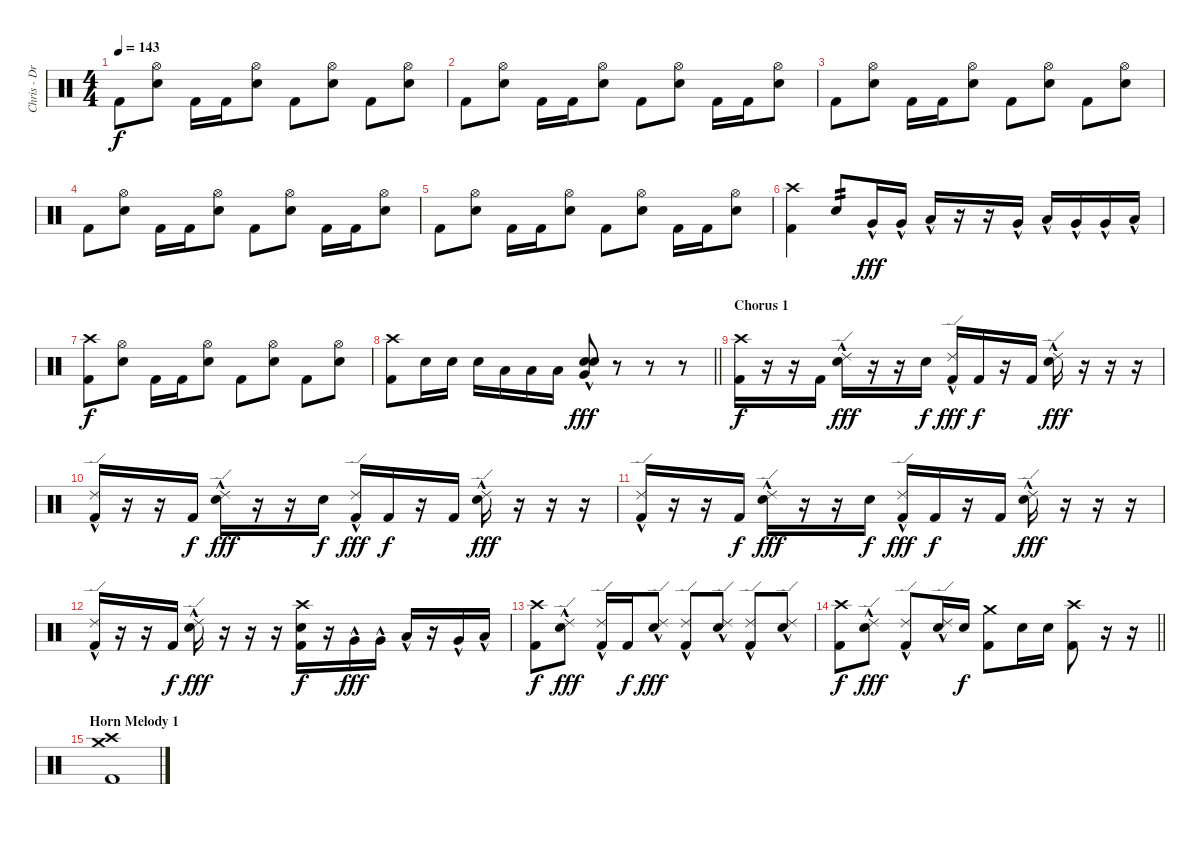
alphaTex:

\track ("Chris - Drums" "Chris - Dr") {instrument percussion}
\staff {score}
\articulation defaults
\ts (4 4)
\tempo 143
\clef neutral
\ks c "Kick (hit) 2".8{dy f}
("Hi-Hat (open)" "Electric Snare (hit)").8 "Kick (hit) 2".16 "Kick (hit) 2".16 ("Hi-Hat (open)" "Electric Snare (hit)").8 "Kick (hit) 2".8 ("Hi-Hat (open)" "Electric Snare (hit)").8 "Kick (hit) 2".8 ("Hi-Hat (open)" "Electric Snare (hit)").8 |
"Kick (hit) 2".8 ("Hi-Hat (open)" "Electric Snare (hit)").8 "Kick (hit) 2".16 "Kick (hit) 2".16 ("Hi-Hat (open)" "Electric Snare (hit)").8 "Kick (hit) 2".8 ("Hi-Hat (open)" "Electric Snare (hit)").8 "Kick (hit) 2".16 "Kick (hit) 2".16 ("Hi-Hat (open)" "Electric Snare (hit)").8 |
"Kick (hit) 2".8 ("Hi-Hat (open)" "Electric Snare (hit)").8 "Kick (hit) 2".16 "Kick (hit) 2".16 ("Hi-Hat (open)" "Electric Snare (hit)").8 "Kick (hit) 2".8 ("Hi-Hat (open)" "Electric Snare (hit)").8 "Kick (hit) 2".8 ("Hi-Hat (open)" "Electric Snare (hit)").8 |
"Kick (hit) 2".8 ("Hi-Hat (open)" "Electric Snare (hit)").8 "Kick (hit) 2".16 "Kick (hit) 2".16 ("Hi-Hat (open)" "Electric Snare (hit)").8 "Kick (hit) 2".8 ("Hi-Hat (open)" "Electric Snare (hit)").8 "Kick (hit) 2".16 "Kick (hit) 2".16 ("Hi-Hat (open)" "Electric Snare (hit)").8 |
"Kick (hit) 2".8 ("Hi-Hat (open)" "Electric Snare (hit)").8 "Kick (hit) 2".16 "Kick (hit) 2".16 ("Hi-Hat (open)" "Electric Snare (hit)").8 "Kick (hit) 2".8 ("Hi-Hat (open)" "Electric Snare (hit)").8 "Kick (hit) 2".16 "Kick (hit) 2".16 ("Hi-Hat (open)" "Electric Snare (hit)").8 |
("Crash high (hit)" "Kick (hit) 2").4 "Electric Snare (hit)".8{tp 2} "Very Low Tom (hit)"{hac}.16{dy fff} "Very Low Tom (hit)"{hac}.16 "Low Tom (hit)"{hac}.16 r.16 r.16 "Very Low Tom (hit)"{hac}.16 "Low Tom (hit)"{hac}.16 "Very Low Tom (hit)"{hac}.16 "Very Low Tom (hit)"{hac}.16 "Low Floor Tom (hit)"{hac}.16 |
("Crash high (hit)" "Kick (hit) 2").8{dy f} ("Hi-Hat (open)" "Electric Snare (hit)").8 "Kick (hit) 2".16 "Kick (hit) 2".16 ("Hi-Hat (open)" "Electric Snare (hit)").8 "Kick (hit) 2".8 ("Hi-Hat (open)" "Electric Snare (hit)").8 "Kick (hit) 2".8 ("Hi-Hat (open)" "Electric Snare (hit)").8 |
\barLineRight lightlight
("Crash high (hit)" "Kick (hit) 2").8 "Electric Snare (hit)".16 "Electric Snare (hit)".16 "Electric Snare (hit)".16 "Low Tom (hit)".16 "Low Tom (hit)".16 "Low Tom (hit)".16 ("Very Low Tom (hit)"{hac} "Electric Snare (hit)"{hac} "Electric Snare (hit)"{hac}).8{dy fff} r.8 r.8 r.8 |
\section ("" "Chorus 1")
("Crash high (hit)" "Kick (hit) 2").16{dy f} r.16 r.16 "Kick (hit) 2".16 ("Ride (edge) 2"{hac} "Electric Snare (hit)").16{dy fff} r.16 r.16 "Electric Snare (hit)".16{dy f} ("Ride (edge) 2"{hac} "Kick (hit) 2").16{dy fff} "Kick (hit) 2".16{dy f} r.16 "Kick (hit) 2".16 ("Ride (edge) 2"{hac} "Electric Snare (hit)").16{dy fff} r.16 r.16 r.16 |
("Ride (edge) 2"{hac} "Kick (hit) 2").16 r.16 r.16 "Kick (hit) 2".16{dy f} ("Ride (edge) 2"{hac} "Electric Snare (hit)").16{dy fff} r.16 r.16 "Electric Snare (hit)".16{dy f} ("Ride (edge) 2"{hac} "Kick (hit) 2").16{dy fff} "Kick (hit) 2".16{dy f} r.16 "Kick (hit) 2".16 ("Ride (edge) 2"{hac} "Electric Snare (hit)").16{dy fff} r.16 r.16 r.16 |
("Ride (edge) 2"{hac} "Kick (hit) 2").16 r.16 r.16 "Kick (hit) 2".16{dy f} ("Ride (edge) 2"{hac} "Electric Snare (hit)").16{dy fff} r.16 r.16 "Electric Snare (hit)".16{dy f} ("Ride (edge) 2"{hac} "Kick (hit) 2").16{dy fff} "Kick (hit) 2".16{dy f} r.16 "Kick (hit) 2".16 ("Ride (edge) 2"{hac} "Electric Snare (hit)").16{dy fff} r.16 r.16 r.16 |
("Ride (edge) 2"{hac} "Kick (hit) 2").16 r.16 r.16 "Kick (hit) 2".16{dy f} ("Ride (edge) 2"{hac} "Electric Snare (hit)").16{dy fff} r.16 r.16 r.16 ("Crash high (hit)" "Electric Snare (hit)" "Kick (hit) 2").16{dy f} r.16 "Very Low Tom (hit)"{hac}.16{dy fff} "Very Low Tom (hit)"{hac}.16 "Low Tom (hit)"{hac}.16 r.16 "Very Low Tom (hit)"{hac}.16 "Low Floor Tom (hit)"{hac}.16 |
("Crash high (hit)" "Kick (hit) 2").8{dy f} ("Ride (edge) 2"{hac} "Electric Snare (hit)").8{dy fff} ("Ride (edge) 2"{hac} "Kick (hit) 2").16 "Kick (hit) 2".16{dy f} ("Ride (edge) 2"{hac} "Electric Snare (hit)").8{dy fff} ("Ride (edge) 2"{hac} "Kick (hit) 2").8 ("Ride (edge) 2"{hac} "Electric Snare (hit)").8 ("Ride (edge) 2"{hac} "Kick (hit) 2").8 ("Ride (edge) 2"{hac} "Electric Snare (hit)").8 |
\barLineRight lightlight
("Crash high (hit)" "Kick (hit) 2").8{dy f} ("Ride (edge) 2"{hac} "Electric Snare (hit)").8{dy fff} ("Ride (edge) 2"{hac} "Kick (hit) 2").8 ("Ride (edge) 2"{hac} "Electric Snare (hit)").16 "Electric Snare (hit)".16{dy f} ("Crash medium (hit)" "Kick (hit) 2").8 "Electric Snare (hit)".16 "Electric Snare (hit)".16 ("Crash high (hit)" "Kick (hit) 2").8 r.16 r.16 |
\section ("" "Horn Melody 1")
("Crash high (hit)" "Crash medium (hit)" "Kick (hit) 2").1
